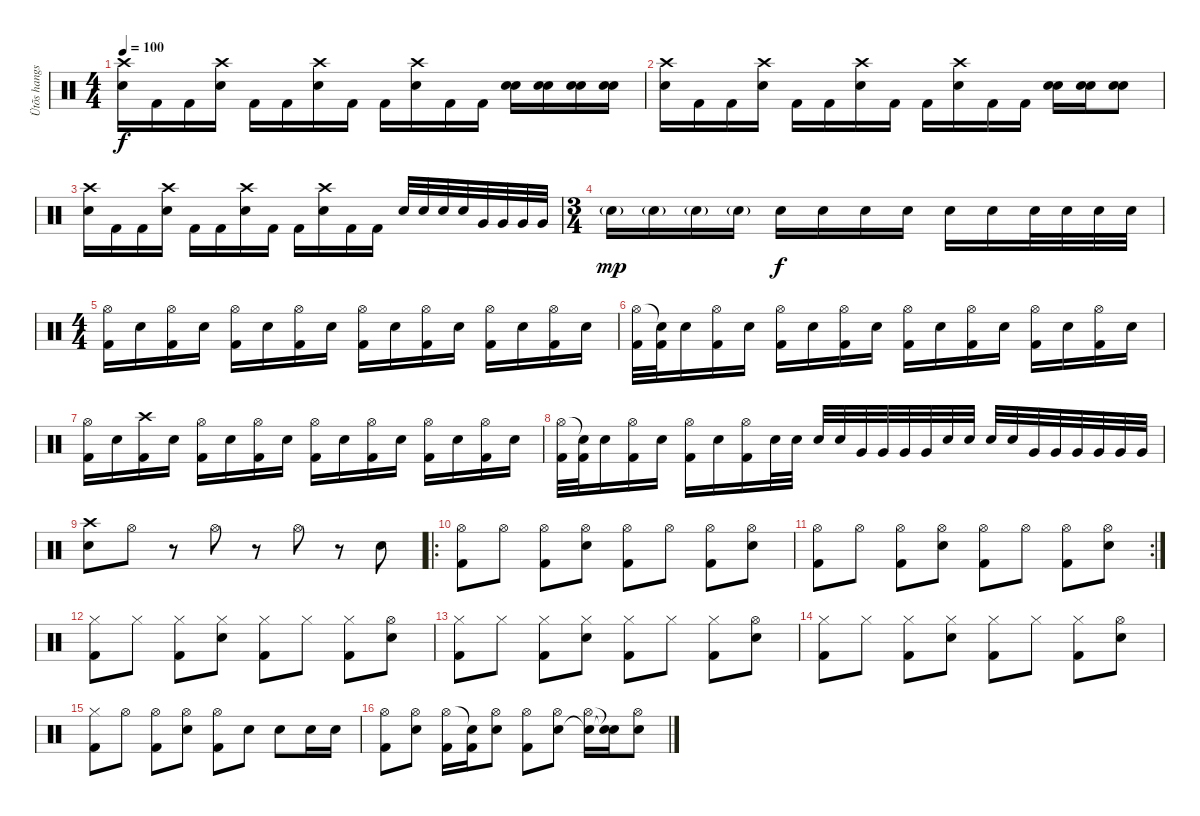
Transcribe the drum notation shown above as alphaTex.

\track ("Ütõs hangszer" "Ütõs hangs") {instrument percussion}
\staff {score}
\articulation defaults
\ts (4 4)
\tempo 100
\clef neutral
\ks c
("Crash high (hit)" "Electric Snare (hit)").16{dy f} "Kick (hit) 2".16 "Kick (hit) 2".16 ("Crash high (hit)" "Electric Snare (hit)").16 "Kick (hit) 2".16 "Kick (hit) 2".16 ("Crash high (hit)" "Electric Snare (hit)").16 "Kick (hit) 2".16 "Kick (hit) 2".16 ("Crash high (hit)" "Electric Snare (hit)").16 "Kick (hit) 2".16 "Kick (hit) 2".16 ("Electric Snare (hit)" "Electric Snare (hit)").16 ("Electric Snare (hit)" "Electric Snare (hit)").16 ("Electric Snare (hit)" "Electric Snare (hit)").16 ("Electric Snare (hit)" "Electric Snare (hit)").16 |
("Crash high (hit)" "Electric Snare (hit)").16 "Kick (hit) 2".16 "Kick (hit) 2".16 ("Crash high (hit)" "Electric Snare (hit)").16 "Kick (hit) 2".16 "Kick (hit) 2".16 ("Crash high (hit)" "Electric Snare (hit)").16 "Kick (hit) 2".16 "Kick (hit) 2".16 ("Crash high (hit)" "Electric Snare (hit)").16 "Kick (hit) 2".16 "Kick (hit) 2".16 ("Electric Snare (hit)" "Electric Snare (hit)").16 ("Electric Snare (hit)" "Electric Snare (hit)").16 ("Electric Snare (hit)" "Electric Snare (hit)").8 |
("Crash high (hit)" "Electric Snare (hit)").16 "Kick (hit) 2".16 "Kick (hit) 2".16 ("Crash high (hit)" "Electric Snare (hit)").16 "Kick (hit) 2".16 "Kick (hit) 2".16 ("Crash high (hit)" "Electric Snare (hit)").16 "Kick (hit) 2".16 "Kick (hit) 2".16 ("Crash high (hit)" "Electric Snare (hit)").16 "Kick (hit) 2".16 "Kick (hit) 2".16 "Electric Snare (hit)".32 "Electric Snare (hit)".32 "Electric Snare (hit)".32 "Electric Snare (hit)".32 "Very Low Tom (hit)".32 "Very Low Tom (hit)".32 "Very Low Tom (hit)".32 "Very Low Tom (hit)".32 |
\ts (3 4)
"Electric Snare (hit)"{g}.16{dy mp} "Electric Snare (hit)"{g}.16 "Electric Snare (hit)"{g}.16 "Electric Snare (hit)"{g}.16 "Electric Snare (hit)".16{dy f} "Electric Snare (hit)".16 "Electric Snare (hit)".16 "Electric Snare (hit)".16 "Electric Snare (hit)".16 "Electric Snare (hit)".16 "Electric Snare (hit)".32 "Electric Snare (hit)".32 "Electric Snare (hit)".32 "Electric Snare (hit)".32 |
\ts (4 4)
("Hi-Hat (open)" "Kick (hit) 2").16 "Electric Snare (hit)".16 ("Hi-Hat (open)" "Kick (hit) 2").16 "Electric Snare (hit)".16 ("Hi-Hat (open)" "Kick (hit) 2").16 "Electric Snare (hit)".16 ("Hi-Hat (open)" "Kick (hit) 2").16 "Electric Snare (hit)".16 ("Hi-Hat (open)" "Kick (hit) 2").16 "Electric Snare (hit)".16 ("Hi-Hat (open)" "Kick (hit) 2").16 "Electric Snare (hit)".16 ("Hi-Hat (open)" "Kick (hit) 2").16 "Electric Snare (hit)".16 ("Hi-Hat (open)" "Kick (hit) 2").16 "Electric Snare (hit)".16 |
("Hi-Hat (open)" "Kick (hit) 2").32 ("Snare (hit)"{t} "Kick (hit) 2").32 "Electric Snare (hit)".16 ("Hi-Hat (open)" "Kick (hit) 2").16 "Electric Snare (hit)".16 ("Hi-Hat (open)" "Kick (hit) 2").16 "Electric Snare (hit)".16 ("Hi-Hat (open)" "Kick (hit) 2").16 "Electric Snare (hit)".16 ("Hi-Hat (open)" "Kick (hit) 2").16 "Electric Snare (hit)".16 ("Hi-Hat (open)" "Kick (hit) 2").16 "Electric Snare (hit)".16 ("Hi-Hat (open)" "Kick (hit) 2").16 "Electric Snare (hit)".16 ("Hi-Hat (open)" "Kick (hit) 2").16 "Electric Snare (hit)".16 |
("Hi-Hat (open)" "Kick (hit) 2").16 "Electric Snare (hit)".16 ("Crash high (hit)" "Kick (hit) 2").16 "Electric Snare (hit)".16 ("Hi-Hat (open)" "Kick (hit) 2").16 "Electric Snare (hit)".16 ("Hi-Hat (open)" "Kick (hit) 2").16 "Electric Snare (hit)".16 ("Hi-Hat (open)" "Kick (hit) 2").16 "Electric Snare (hit)".16 ("Hi-Hat (open)" "Kick (hit) 2").16 "Electric Snare (hit)".16 ("Hi-Hat (open)" "Kick (hit) 2").16 "Electric Snare (hit)".16 ("Hi-Hat (open)" "Kick (hit) 2").16 "Electric Snare (hit)".16 |
("Hi-Hat (open)" "Kick (hit) 2").32 ("Snare (hit)"{t} "Kick (hit) 2").32 "Electric Snare (hit)".16 ("Hi-Hat (open)" "Kick (hit) 2").16 "Electric Snare (hit)".16 ("Hi-Hat (open)" "Kick (hit) 2").16 "Electric Snare (hit)".16 ("Hi-Hat (open)" "Kick (hit) 2").16 "Electric Snare (hit)".32 "Electric Snare (hit)".32 "Electric Snare (hit)".32 "Electric Snare (hit)".32 "Very Low Tom (hit)".32 "Very Low Tom (hit)".32 "Very Low Tom (hit)".32 "Very Low Tom (hit)".32 "Electric Snare (hit)".32 "Electric Snare (hit)".32 "Electric Snare (hit)".32 "Electric Snare (hit)".32 "Very Low Tom (hit)".32 "Very Low Tom (hit)".32 "Very Low Tom (hit)".32 "Very Low Tom (hit)".32 "Very Low Tom (hit)".32 "Very Low Tom (hit)".32 |
("Crash high (hit)" "Electric Snare (hit)").8 "Hi-Hat (open)".8 r.8 "Hi-Hat (open)".8 r.8 "Hi-Hat (open)".8 r.8 "Electric Snare (hit)".8 |
\ro
("Hi-Hat (open)" "Kick (hit) 2").8 "Hi-Hat (open)".8 ("Hi-Hat (open)" "Kick (hit) 2").8 ("Hi-Hat (open)" "Electric Snare (hit)").8 ("Hi-Hat (open)" "Kick (hit) 2").8 "Hi-Hat (open)".8 ("Hi-Hat (open)" "Kick (hit) 2").8 ("Hi-Hat (open)" "Electric Snare (hit)").8 |
\rc 2
("Hi-Hat (open)" "Kick (hit) 2").8 "Hi-Hat (open)".8 ("Hi-Hat (open)" "Kick (hit) 2").8 ("Hi-Hat (open)" "Electric Snare (hit)").8 ("Hi-Hat (open)" "Kick (hit) 2").8 "Hi-Hat (open)".8 ("Hi-Hat (open)" "Kick (hit) 2").8 ("Hi-Hat (open)" "Electric Snare (hit)").8 |
("Hi-Hat (closed)" "Kick (hit) 2").8 "Hi-Hat (closed)".8 ("Hi-Hat (closed)" "Kick (hit) 2").8 ("Hi-Hat (closed)" "Electric Snare (hit)").8 ("Hi-Hat (closed)" "Kick (hit) 2").8 "Hi-Hat (closed)".8 ("Hi-Hat (closed)" "Kick (hit) 2").8 ("Hi-Hat (open)" "Electric Snare (hit)").8 |
("Hi-Hat (closed)" "Kick (hit) 2").8 "Hi-Hat (closed)".8 ("Hi-Hat (closed)" "Kick (hit) 2").8 ("Hi-Hat (closed)" "Electric Snare (hit)").8 ("Hi-Hat (closed)" "Kick (hit) 2").8 "Hi-Hat (closed)".8 ("Hi-Hat (closed)" "Kick (hit) 2").8 ("Hi-Hat (open)" "Electric Snare (hit)").8 |
("Hi-Hat (closed)" "Kick (hit) 2").8 "Hi-Hat (closed)".8 ("Hi-Hat (closed)" "Kick (hit) 2").8 ("Hi-Hat (closed)" "Electric Snare (hit)").8 ("Hi-Hat (closed)" "Kick (hit) 2").8 "Hi-Hat (closed)".8 ("Hi-Hat (closed)" "Kick (hit) 2").8 ("Hi-Hat (open)" "Electric Snare (hit)").8 |
("Hi-Hat (closed)" "Kick (hit) 2").8 "Hi-Hat (open)".8 ("Hi-Hat (open)" "Kick (hit) 2").8 ("Hi-Hat (open)" "Electric Snare (hit)").8 ("Hi-Hat (open)" "Kick (hit) 2").8 "Electric Snare (hit)".8 "Electric Snare (hit)".8 "Electric Snare (hit)".16 "Electric Snare (hit)".16 |
("Hi-Hat (open)" "Kick (hit) 2").8 ("Hi-Hat (open)" "Electric Snare (hit)").8 ("Hi-Hat (open)" "Kick (hit) 2").16 ("Snare (hit)"{t} "Kick (hit) 2").16 ("Hi-Hat (open)" "Electric Snare (hit)").8 ("Hi-Hat (open)" "Kick (hit) 2").8 ("Hi-Hat (open)" "Electric Snare (hit)").8 ("Hi-Hat (open)" "Snare (hit)"{t}).16 ("Snare (hit)"{t} "Snare (hit)"{t}).16 ("Hi-Hat (open)" "Electric Snare (hit)").8
